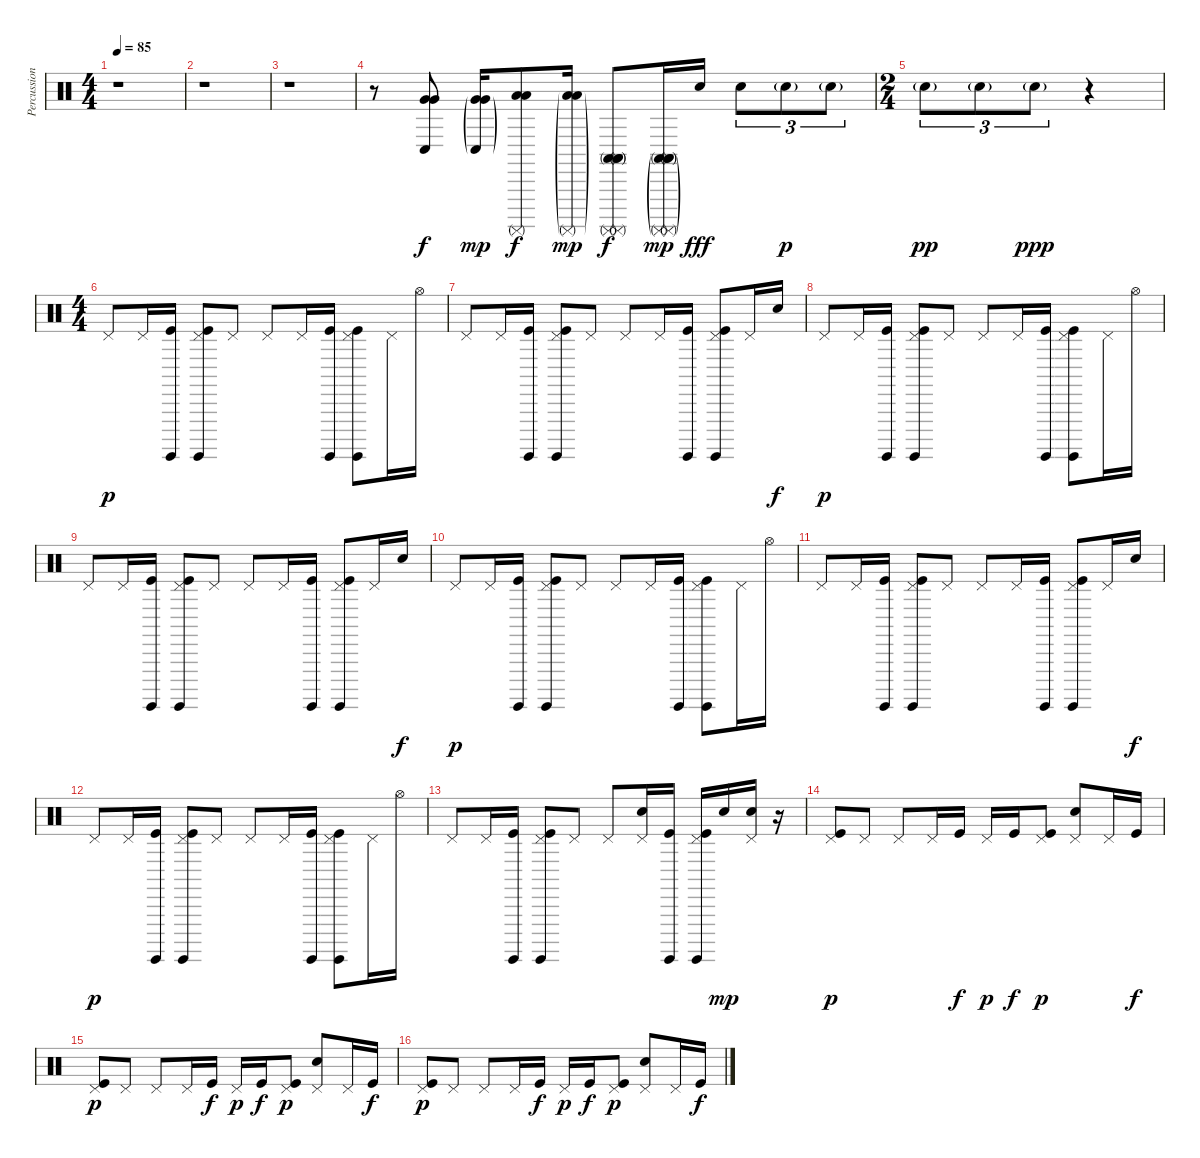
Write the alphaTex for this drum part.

\track ("Percussions" "Percussion") {instrument percussion}
\staff {score}
\articulation defaults
\ts (4 4)
\tempo 85
\clef neutral
\ks c
r.1{dy f} |
r.1 |
r.1 |
r.8 ("Very Low Tom (hit)" "Conga low (hit)" "Very Low Tom (hit)").8 ("Very Low Tom (hit)"{g} "Conga low (hit)"{g} "Very Low Tom (hit)"{g}).16{dy mp} ("Low Floor Tom (hit)" "Low Floor Tom (hit)" "Surdo (mute)").8{dy f} ("Low Floor Tom (hit)"{g} "Low Floor Tom (hit)"{g} "Surdo (mute)"{g}).16{dy mp} ("Conga high (mute)" "Conga high (mute)" "Conga high (mute)" "Surdo (mute)" "Surdo (mute)").8{dy f} ("Conga high (mute)"{g} "Conga high (mute)"{g} "Conga high (mute)"{g} "Surdo (mute)"{g} "Surdo (mute)"{g}).16{dy mp} "Snare (hit) 2".16{dy fff} "Snare (hit) 2".8{tu (3 2)} "Snare (hit) 2"{g}.8{tu (3 2) dy p} "Snare (hit) 2"{g}.8{tu (3 2)} |
\ts (2 4)
"Snare (hit) 2"{g}.8{tu (3 2) dy pp} "Snare (hit) 2"{g}.8{tu (3 2)} "Snare (hit) 2"{g}.8{tu (3 2) dy ppp} r.4 |
\ts (4 4)
"Pedal Hi-Hat (hit)".8{dy p} "Pedal Hi-Hat (hit)".16 ("Surdo (hit)" "Kick (hit)").16 ("Pedal Hi-Hat (hit)" "Surdo (hit)" "Kick (hit)").8 "Pedal Hi-Hat (hit)".8 "Pedal Hi-Hat (hit)".8 "Pedal Hi-Hat (hit)".16 ("Surdo (hit)" "Kick (hit)").16 ("Pedal Hi-Hat (hit)" "Surdo (hit)" "Kick (hit)").8 "Pedal Hi-Hat (hit)".16 "Hi-Hat (open)".16 |
"Pedal Hi-Hat (hit)".8 "Pedal Hi-Hat (hit)".16 ("Surdo (hit)" "Kick (hit)").16 ("Pedal Hi-Hat (hit)" "Surdo (hit)" "Kick (hit)").8 "Pedal Hi-Hat (hit)".8 "Pedal Hi-Hat (hit)".8 "Pedal Hi-Hat (hit)".16 ("Surdo (hit)" "Kick (hit)").16 ("Pedal Hi-Hat (hit)" "Surdo (hit)" "Kick (hit)").8 "Pedal Hi-Hat (hit)".16 "Snare (hit) 2".16{dy f} |
"Pedal Hi-Hat (hit)".8{dy p} "Pedal Hi-Hat (hit)".16 ("Surdo (hit)" "Kick (hit)").16 ("Pedal Hi-Hat (hit)" "Surdo (hit)" "Kick (hit)").8 "Pedal Hi-Hat (hit)".8 "Pedal Hi-Hat (hit)".8 "Pedal Hi-Hat (hit)".16 ("Surdo (hit)" "Kick (hit)").16 ("Pedal Hi-Hat (hit)" "Surdo (hit)" "Kick (hit)").8 "Pedal Hi-Hat (hit)".16 "Hi-Hat (open)".16 |
"Pedal Hi-Hat (hit)".8 "Pedal Hi-Hat (hit)".16 ("Surdo (hit)" "Kick (hit)").16 ("Pedal Hi-Hat (hit)" "Surdo (hit)" "Kick (hit)").8 "Pedal Hi-Hat (hit)".8 "Pedal Hi-Hat (hit)".8 "Pedal Hi-Hat (hit)".16 ("Surdo (hit)" "Kick (hit)").16 ("Pedal Hi-Hat (hit)" "Surdo (hit)" "Kick (hit)").8 "Pedal Hi-Hat (hit)".16 "Snare (hit) 2".16{dy f} |
"Pedal Hi-Hat (hit)".8{dy p} "Pedal Hi-Hat (hit)".16 ("Surdo (hit)" "Kick (hit)").16 ("Pedal Hi-Hat (hit)" "Surdo (hit)" "Kick (hit)").8 "Pedal Hi-Hat (hit)".8 "Pedal Hi-Hat (hit)".8 "Pedal Hi-Hat (hit)".16 ("Surdo (hit)" "Kick (hit)").16 ("Pedal Hi-Hat (hit)" "Surdo (hit)" "Kick (hit)").8 "Pedal Hi-Hat (hit)".16 "Hi-Hat (open)".16 |
"Pedal Hi-Hat (hit)".8 "Pedal Hi-Hat (hit)".16 ("Surdo (hit)" "Kick (hit)").16 ("Pedal Hi-Hat (hit)" "Surdo (hit)" "Kick (hit)").8 "Pedal Hi-Hat (hit)".8 "Pedal Hi-Hat (hit)".8 "Pedal Hi-Hat (hit)".16 ("Surdo (hit)" "Kick (hit)").16 ("Pedal Hi-Hat (hit)" "Surdo (hit)" "Kick (hit)").8 "Pedal Hi-Hat (hit)".16 "Snare (hit) 2".16{dy f} |
"Pedal Hi-Hat (hit)".8{dy p} "Pedal Hi-Hat (hit)".16 ("Surdo (hit)" "Kick (hit)").16 ("Pedal Hi-Hat (hit)" "Surdo (hit)" "Kick (hit)").8 "Pedal Hi-Hat (hit)".8 "Pedal Hi-Hat (hit)".8 "Pedal Hi-Hat (hit)".16 ("Surdo (hit)" "Kick (hit)").16 ("Pedal Hi-Hat (hit)" "Surdo (hit)" "Kick (hit)").8 "Pedal Hi-Hat (hit)".16 "Hi-Hat (open)".16 |
"Pedal Hi-Hat (hit)".8 "Pedal Hi-Hat (hit)".16 ("Surdo (hit)" "Kick (hit)").16 ("Pedal Hi-Hat (hit)" "Surdo (hit)" "Kick (hit)").8 "Pedal Hi-Hat (hit)".8 "Pedal Hi-Hat (hit)".8 ("Pedal Hi-Hat (hit)" "Snare (hit) 2").16 ("Surdo (hit)" "Kick (hit)").16 ("Pedal Hi-Hat (hit)" "Surdo (hit)" "Kick (hit)").16 "Electric Snare (hit)".16{dy mp} ("Pedal Hi-Hat (hit)" "Electric Snare (hit)").16 r.16 |
("Pedal Hi-Hat (hit)" "Kick (hit)").8{dy p} "Pedal Hi-Hat (hit)".8 "Pedal Hi-Hat (hit)".8 "Pedal Hi-Hat (hit)".16 "Kick (hit)".16{dy f} "Pedal Hi-Hat (hit)".16{dy p} "Kick (hit)".16{dy f} ("Pedal Hi-Hat (hit)" "Kick (hit)").8{dy p} ("Pedal Hi-Hat (hit)" "Snare (hit) 2").8 "Pedal Hi-Hat (hit)".16 "Kick (hit)".16{dy f} |
("Pedal Hi-Hat (hit)" "Kick (hit)").8{dy p} "Pedal Hi-Hat (hit)".8 "Pedal Hi-Hat (hit)".8 "Pedal Hi-Hat (hit)".16 "Kick (hit)".16{dy f} "Pedal Hi-Hat (hit)".16{dy p} "Kick (hit)".16{dy f} ("Pedal Hi-Hat (hit)" "Kick (hit)").8{dy p} ("Pedal Hi-Hat (hit)" "Snare (hit) 2").8 "Pedal Hi-Hat (hit)".16 "Kick (hit)".16{dy f} |
("Pedal Hi-Hat (hit)" "Kick (hit)").8{dy p} "Pedal Hi-Hat (hit)".8 "Pedal Hi-Hat (hit)".8 "Pedal Hi-Hat (hit)".16 "Kick (hit)".16{dy f} "Pedal Hi-Hat (hit)".16{dy p} "Kick (hit)".16{dy f} ("Pedal Hi-Hat (hit)" "Kick (hit)").8{dy p} ("Pedal Hi-Hat (hit)" "Snare (hit) 2").8 "Pedal Hi-Hat (hit)".16 "Kick (hit)".16{dy f}
